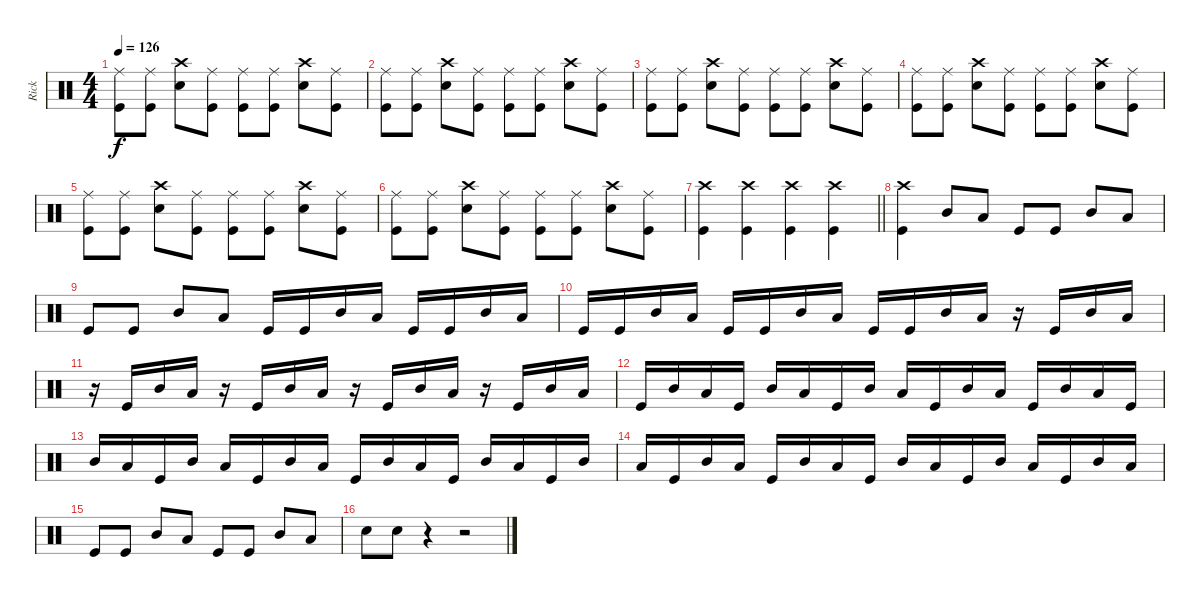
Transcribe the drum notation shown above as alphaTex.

\track ("Rick" "Rick") {instrument percussion}
\staff {score}
\articulation defaults
\ts (4 4)
\tempo 126
\clef neutral
\ks aminor
("Ride (middle)" "Kick (hit)").8{dy f} ("Ride (middle)" "Kick (hit)").8 ("Crash high (hit)" "Snare (hit) 2").8 ("Ride (middle)" "Kick (hit)").8 ("Ride (middle)" "Kick (hit)").8 ("Ride (middle)" "Kick (hit)").8 ("Crash high (hit)" "Snare (hit) 2").8 ("Ride (middle)" "Kick (hit)").8 |
("Ride (middle)" "Kick (hit)").8 ("Ride (middle)" "Kick (hit)").8 ("Crash high (hit)" "Snare (hit) 2").8 ("Ride (middle)" "Kick (hit)").8 ("Ride (middle)" "Kick (hit)").8 ("Ride (middle)" "Kick (hit)").8 ("Crash high (hit)" "Snare (hit) 2").8 ("Ride (middle)" "Kick (hit)").8 |
("Ride (middle)" "Kick (hit)").8 ("Ride (middle)" "Kick (hit)").8 ("Crash high (hit)" "Snare (hit) 2").8 ("Ride (middle)" "Kick (hit)").8 ("Ride (middle)" "Kick (hit)").8 ("Ride (middle)" "Kick (hit)").8 ("Crash high (hit)" "Snare (hit) 2").8 ("Ride (middle)" "Kick (hit)").8 |
("Ride (middle)" "Kick (hit)").8 ("Ride (middle)" "Kick (hit)").8 ("Crash high (hit)" "Snare (hit) 2").8 ("Ride (middle)" "Kick (hit)").8 ("Ride (middle)" "Kick (hit)").8 ("Ride (middle)" "Kick (hit)").8 ("Crash high (hit)" "Snare (hit) 2").8 ("Ride (middle)" "Kick (hit)").8 |
("Ride (middle)" "Kick (hit)").8 ("Ride (middle)" "Kick (hit)").8 ("Crash high (hit)" "Snare (hit) 2").8 ("Ride (middle)" "Kick (hit)").8 ("Ride (middle)" "Kick (hit)").8 ("Ride (middle)" "Kick (hit)").8 ("Crash high (hit)" "Snare (hit) 2").8 ("Ride (middle)" "Kick (hit)").8 |
("Ride (middle)" "Kick (hit)").8 ("Ride (middle)" "Kick (hit)").8 ("Crash high (hit)" "Snare (hit) 2").8 ("Ride (middle)" "Kick (hit)").8 ("Ride (middle)" "Kick (hit)").8 ("Ride (middle)" "Kick (hit)").8 ("Crash high (hit)" "Snare (hit) 2").8 ("Ride (middle)" "Kick (hit)").8 |
\barLineRight lightlight
("Crash high (hit)" "Kick (hit)").4 ("Crash high (hit)" "Kick (hit)").4 ("Crash high (hit)" "Kick (hit)").4 ("Crash high (hit)" "Kick (hit)").4 |
("Crash high (hit)" "Kick (hit)").4 "Mid Tom (hit)".8 "Low Tom (hit)".8 "Kick (hit)".8 "Kick (hit)".8 "Mid Tom (hit)".8 "Low Tom (hit)".8 |
"Kick (hit)".8 "Kick (hit)".8 "Mid Tom (hit)".8 "Low Tom (hit)".8 "Kick (hit)".16 "Kick (hit)".16 "Mid Tom (hit)".16 "Low Tom (hit)".16 "Kick (hit)".16 "Kick (hit)".16 "Mid Tom (hit)".16 "Low Tom (hit)".16 |
"Kick (hit)".16 "Kick (hit)".16 "Mid Tom (hit)".16 "Low Tom (hit)".16 "Kick (hit)".16 "Kick (hit)".16 "Mid Tom (hit)".16 "Low Tom (hit)".16 "Kick (hit)".16 "Kick (hit)".16 "Mid Tom (hit)".16 "Low Tom (hit)".16 r.16 "Kick (hit)".16 "Mid Tom (hit)".16 "Low Tom (hit)".16 |
r.16 "Kick (hit)".16 "Mid Tom (hit)".16 "Low Tom (hit)".16 r.16 "Kick (hit)".16 "Mid Tom (hit)".16 "Low Tom (hit)".16 r.16 "Kick (hit)".16 "Mid Tom (hit)".16 "Low Tom (hit)".16 r.16 "Kick (hit)".16 "Mid Tom (hit)".16 "Low Tom (hit)".16 |
"Kick (hit)".16 "Mid Tom (hit)".16 "Low Tom (hit)".16 "Kick (hit)".16 "Mid Tom (hit)".16 "Low Tom (hit)".16 "Kick (hit)".16 "Mid Tom (hit)".16 "Low Tom (hit)".16 "Kick (hit)".16 "Mid Tom (hit)".16 "Low Tom (hit)".16 "Kick (hit)".16 "Mid Tom (hit)".16 "Low Tom (hit)".16 "Kick (hit)".16 |
"Mid Tom (hit)".16 "Low Tom (hit)".16 "Kick (hit)".16 "Mid Tom (hit)".16 "Low Tom (hit)".16 "Kick (hit)".16 "Mid Tom (hit)".16 "Low Tom (hit)".16 "Kick (hit)".16 "Mid Tom (hit)".16 "Low Tom (hit)".16 "Kick (hit)".16 "Mid Tom (hit)".16 "Low Tom (hit)".16 "Kick (hit)".16 "Mid Tom (hit)".16 |
"Low Tom (hit)".16 "Kick (hit)".16 "Mid Tom (hit)".16 "Low Tom (hit)".16 "Kick (hit)".16 "Mid Tom (hit)".16 "Low Tom (hit)".16 "Kick (hit)".16 "Mid Tom (hit)".16 "Low Tom (hit)".16 "Kick (hit)".16 "Mid Tom (hit)".16 "Low Tom (hit)".16 "Kick (hit)".16 "Mid Tom (hit)".16 "Low Tom (hit)".16 |
"Kick (hit)".8 "Kick (hit)".8 "Mid Tom (hit)".8 "Low Tom (hit)".8 "Kick (hit)".8 "Kick (hit)".8 "Mid Tom (hit)".8 "Low Tom (hit)".8 |
"Snare (hit) 2".8 "Snare (hit) 2".8 r.4 r.2
